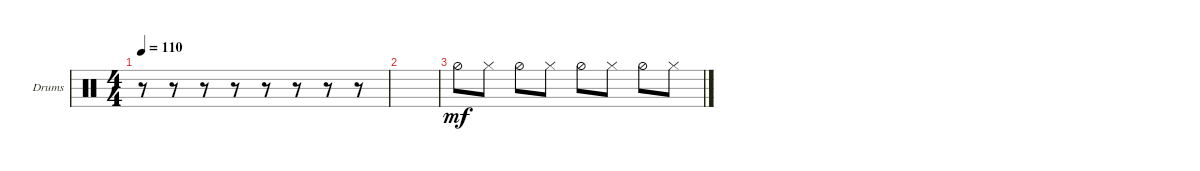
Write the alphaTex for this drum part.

\defaultSystemsLayout 4
\bracketExtendMode groupsimilarinstruments
\firstSystemTrackNameOrientation horizontal
\otherSystemsTrackNameOrientation horizontal
\track ("hi hat" "Drums") {instrument percussion}
\staff {score}
\articulation defaults
\ts (4 4)
\tempo 110
\clef neutral
\ks c
r.8{dy mf} r.8 r.8 r.8 r.8 r.8 r.8 r.8 |
|
"Hi-Hat (half)".8 "Hi-Hat (closed)".8 "Hi-Hat (half)".8 "Hi-Hat (closed)".8 "Hi-Hat (half)".8 "Hi-Hat (closed)".8 "Hi-Hat (half)".8 "Hi-Hat (closed)".8
